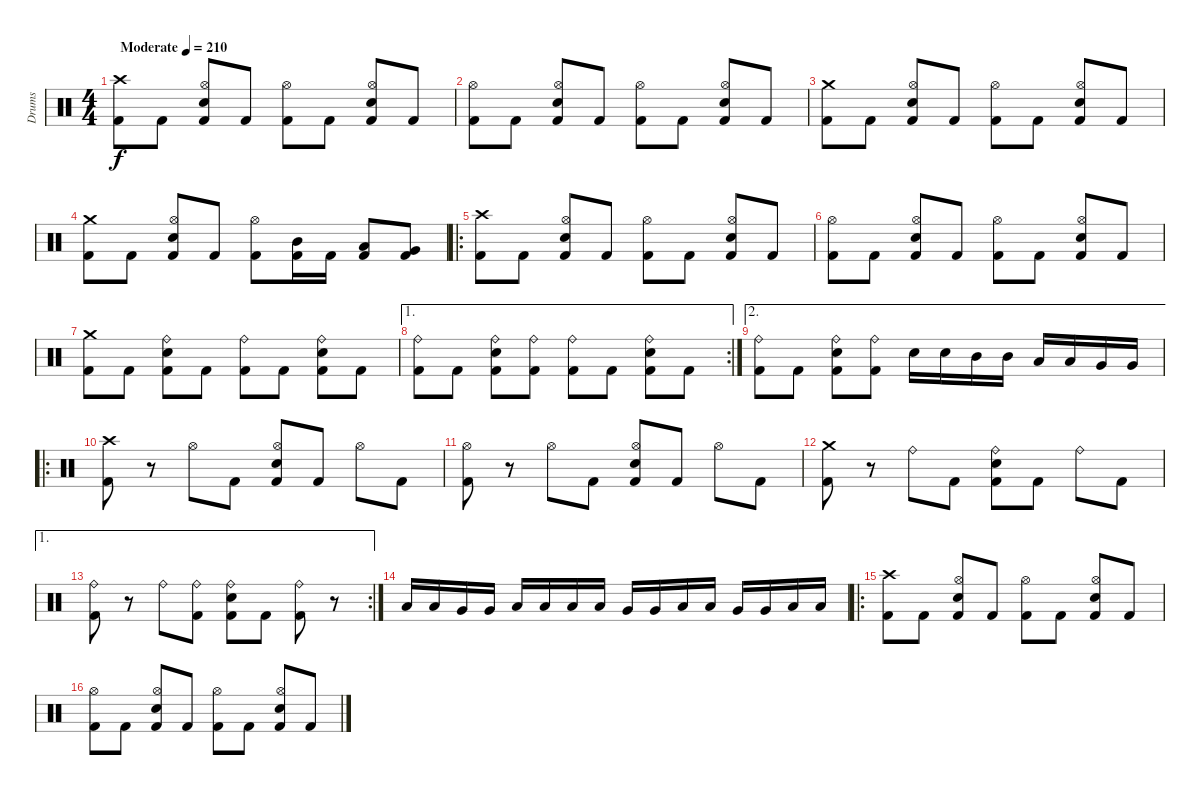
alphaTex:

\track ("Drums" "Drums") {instrument percussion}
\staff {score}
\articulation defaults
\ts (4 4)
\tempo (210 "Moderate")
\clef neutral
\ks c
("Crash high (hit)" "Kick (hit) 2").8{dy f} "Kick (hit) 2".8 ("Hi-Hat (open)" "Snare (hit) 2" "Kick (hit) 2").8 "Kick (hit) 2".8 ("Hi-Hat (open)" "Kick (hit) 2").8 "Kick (hit) 2".8 ("Hi-Hat (open)" "Snare (hit) 2" "Kick (hit) 2").8 "Kick (hit) 2".8 |
("Hi-Hat (open)" "Kick (hit) 2").8 "Kick (hit) 2".8 ("Hi-Hat (open)" "Snare (hit) 2" "Kick (hit) 2").8 "Kick (hit) 2".8 ("Hi-Hat (open)" "Kick (hit) 2").8 "Kick (hit) 2".8 ("Hi-Hat (open)" "Snare (hit) 2" "Kick (hit) 2").8 "Kick (hit) 2".8 |
("Crash medium (hit)" "Kick (hit) 2").8 "Kick (hit) 2".8 ("Hi-Hat (open)" "Snare (hit) 2" "Kick (hit) 2").8 "Kick (hit) 2".8 ("Hi-Hat (open)" "Kick (hit) 2").8 "Kick (hit) 2".8 ("Hi-Hat (open)" "Snare (hit) 2" "Kick (hit) 2").8 "Kick (hit) 2".8 |
("Crash medium (hit)" "Kick (hit) 2").8 "Kick (hit) 2".8 ("Hi-Hat (open)" "Snare (hit) 2" "Kick (hit) 2").8 "Kick (hit) 2".8 ("Hi-Hat (open)" "Kick (hit) 2").8 ("Mid Tom (hit)" "Kick (hit) 2").16 "Kick (hit) 2".16 ("Low Tom (hit)" "Kick (hit) 2").8 ("Very Low Tom (hit)" "Kick (hit) 2").8 |
\ro
("Crash high (hit)" "Kick (hit) 2").8 "Kick (hit) 2".8 ("Hi-Hat (open)" "Snare (hit) 2" "Kick (hit) 2").8 "Kick (hit) 2".8 ("Hi-Hat (open)" "Kick (hit) 2").8 "Kick (hit) 2".8 ("Hi-Hat (open)" "Snare (hit) 2" "Kick (hit) 2").8 "Kick (hit) 2".8 |
("Hi-Hat (open)" "Kick (hit) 2").8 "Kick (hit) 2".8 ("Hi-Hat (open)" "Snare (hit) 2" "Kick (hit) 2").8 "Kick (hit) 2".8 ("Hi-Hat (open)" "Kick (hit) 2").8 "Kick (hit) 2".8 ("Hi-Hat (open)" "Snare (hit) 2" "Kick (hit) 2").8 "Kick (hit) 2".8 |
("Crash medium (hit)" "Kick (hit) 2").8 "Kick (hit) 2".8 ("Ride (bell)" "Snare (hit) 2" "Kick (hit) 2").8 "Kick (hit) 2".8 ("Ride (bell)" "Kick (hit) 2").8 "Kick (hit) 2".8 ("Ride (bell)" "Snare (hit) 2" "Kick (hit) 2").8 "Kick (hit) 2".8 |
\ae 1
\rc 2
("Ride (bell)" "Kick (hit) 2").8 "Kick (hit) 2".8 ("Ride (bell)" "Snare (hit) 2" "Kick (hit) 2").8 ("Ride (bell)" "Kick (hit) 2").8 ("Ride (bell)" "Kick (hit) 2").8 "Kick (hit) 2".8 ("Ride (bell)" "Snare (hit) 2" "Kick (hit) 2").8 "Kick (hit) 2".8 |
\ae 2
("Ride (bell)" "Kick (hit) 2").8 "Kick (hit) 2".8 ("Ride (bell)" "Snare (hit) 2" "Kick (hit) 2").8 ("Ride (bell)" "Kick (hit) 2").8 "Snare (hit) 2".16 "Snare (hit) 2".16 "Mid Tom (hit)".16 "Mid Tom (hit)".16 "Low Tom (hit)".16 "Low Tom (hit)".16 "Very Low Tom (hit)".16 "Very Low Tom (hit)".16 |
\ro
("Crash high (hit)" "Kick (hit) 2").8 r.8 "Hi-Hat (open)".8 "Kick (hit) 2".8 ("Hi-Hat (open)" "Snare (hit) 2" "Kick (hit) 2").8 "Kick (hit) 2".8 "Hi-Hat (open)".8 "Kick (hit) 2".8 |
("Hi-Hat (open)" "Kick (hit) 2").8 r.8 "Hi-Hat (open)".8 "Kick (hit) 2".8 ("Hi-Hat (open)" "Snare (hit) 2" "Kick (hit) 2").8 "Kick (hit) 2".8 "Hi-Hat (open)".8 "Kick (hit) 2".8 |
("Crash medium (hit)" "Kick (hit) 2").8 r.8 "Ride (bell)".8 "Kick (hit) 2".8 ("Ride (bell)" "Snare (hit) 2" "Kick (hit) 2").8 "Kick (hit) 2".8 "Ride (bell)".8 "Kick (hit) 2".8 |
\ae 1
\rc 2
("Ride (bell)" "Kick (hit) 2").8 r.8 "Ride (bell)".8 ("Ride (bell)" "Kick (hit) 2").8 ("Ride (bell)" "Snare (hit) 2" "Kick (hit) 2").8 "Kick (hit) 2".8 ("Ride (bell)" "Kick (hit) 2").8 r.8 |
"Low Tom (hit)".16 "Low Tom (hit)".16 "Very Low Tom (hit)".16 "Very Low Tom (hit)".16 "Low Floor Tom (hit)".16 "Low Floor Tom (hit)".16 "Low Floor Tom (hit)".16 "Low Floor Tom (hit)".16 "Very Low Tom (hit)".16 "Very Low Tom (hit)".16 "Low Tom (hit)".16 "Low Tom (hit)".16 "Very Low Tom (hit)".16 "Very Low Tom (hit)".16 "Low Floor Tom (hit)".16 "Low Floor Tom (hit)".16 |
\ro
("Crash high (hit)" "Kick (hit) 2").8 "Kick (hit) 2".8 ("Hi-Hat (open)" "Snare (hit) 2" "Kick (hit) 2").8 "Kick (hit) 2".8 ("Hi-Hat (open)" "Kick (hit) 2").8 "Kick (hit) 2".8 ("Hi-Hat (open)" "Snare (hit) 2" "Kick (hit) 2").8 "Kick (hit) 2".8 |
("Hi-Hat (open)" "Kick (hit) 2").8 "Kick (hit) 2".8 ("Hi-Hat (open)" "Snare (hit) 2" "Kick (hit) 2").8 "Kick (hit) 2".8 ("Hi-Hat (open)" "Kick (hit) 2").8 "Kick (hit) 2".8 ("Hi-Hat (open)" "Snare (hit) 2" "Kick (hit) 2").8 "Kick (hit) 2".8
